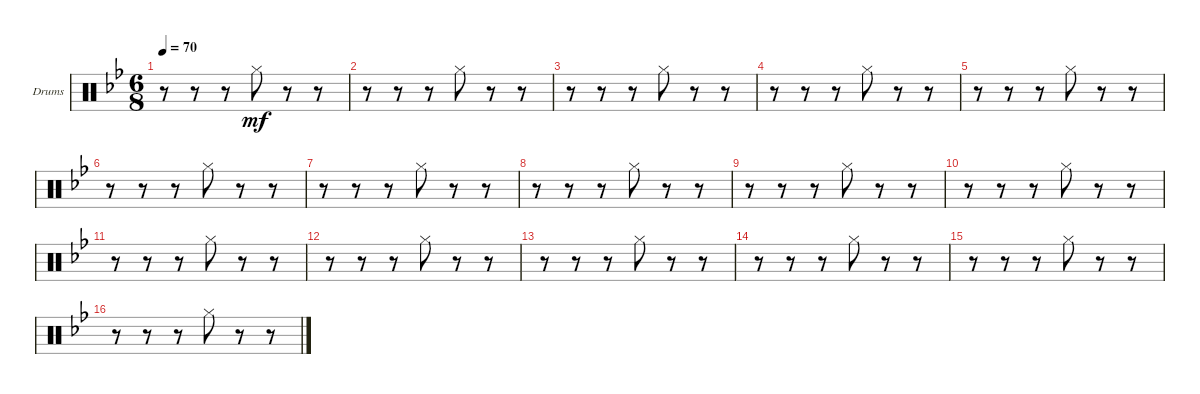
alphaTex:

\defaultSystemsLayout 4
\bracketExtendMode groupsimilarinstruments
\firstSystemTrackNameOrientation horizontal
\otherSystemsTrackNameOrientation horizontal
\track ("Drumkit" "Drums") {instrument percussion}
\staff {score}
\articulation defaults
\ts (6 8)
\tempo 70
\clef neutral
\scale
0.525
\ks gminor
r.8{dy mf} r.8 r.8 "Hi-Hat (closed)".8 r.8 r.8 |
\scale
0.2375 r.8 r.8 r.8 "Hi-Hat (closed)".8 r.8 r.8 |
\scale
0.2375 r.8 r.8 r.8 "Hi-Hat (closed)".8 r.8 r.8 |
\scale
0.333333 r.8 r.8 r.8 "Hi-Hat (closed)".8 r.8 r.8 |
\scale
0.333333 r.8 r.8 r.8 "Hi-Hat (closed)".8 r.8 r.8 |
\scale
0.333333 r.8 r.8 r.8 "Hi-Hat (closed)".8 r.8 r.8 |
\scale
0.333333 r.8 r.8 r.8 "Hi-Hat (closed)".8 r.8 r.8 |
\scale
0.333333 r.8 r.8 r.8 "Hi-Hat (closed)".8 r.8 r.8 |
\scale
0.333333 r.8 r.8 r.8 "Hi-Hat (closed)".8 r.8 r.8 |
\scale
0.333333 r.8 r.8 r.8 "Hi-Hat (closed)".8 r.8 r.8 |
\scale
0.333333 r.8 r.8 r.8 "Hi-Hat (closed)".8 r.8 r.8 |
\scale
0.333333 r.8 r.8 r.8 "Hi-Hat (closed)".8 r.8 r.8 |
\scale
0.333333 r.8 r.8 r.8 "Hi-Hat (closed)".8 r.8 r.8 |
\scale
0.333333 r.8 r.8 r.8 "Hi-Hat (closed)".8 r.8 r.8 |
\scale
0.333333 r.8 r.8 r.8 "Hi-Hat (closed)".8 r.8 r.8 |
r.8 r.8 r.8 "Hi-Hat (closed)".8 r.8 r.8
